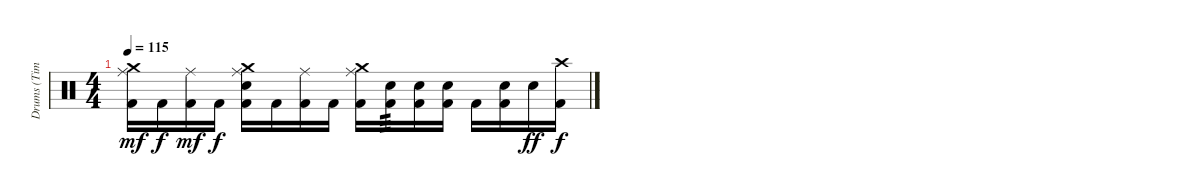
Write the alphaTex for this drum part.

\track ("Drums (Tim Alexander)" "Drums (Tim") {instrument percussion}
\staff {score}
\articulation defaults
\ts (4 4)
\tempo 115
\clef neutral
\ks c
("Crash medium (hit)" "Ride (middle)" "Kick (hit) 2").16{dy mf} "Kick (hit) 2".16{dy f} ("Ride (middle)" "Kick (hit) 2").16{dy mf} "Kick (hit) 2".16{dy f} ("Crash medium (hit)" "Ride (middle)" "Electric Snare (hit)" "Kick (hit) 2").16 "Kick (hit) 2".16 ("Ride (middle)" "Kick (hit) 2").16 "Kick (hit) 2".16 ("Crash medium (hit)" "Ride (middle)" "Kick (hit) 2").16 ("Electric Snare (hit)" "Kick (hit) 2").16{tp 3} ("Electric Snare (hit)" "Kick (hit) 2").16 ("Electric Snare (hit)" "Kick (hit) 2").16 "Kick (hit) 2".16 ("Electric Snare (hit)" "Kick (hit) 2").16 "Electric Snare (hit)".16{dy ff} ("Crash high (hit)" "Kick (hit) 2").16{dy f}
